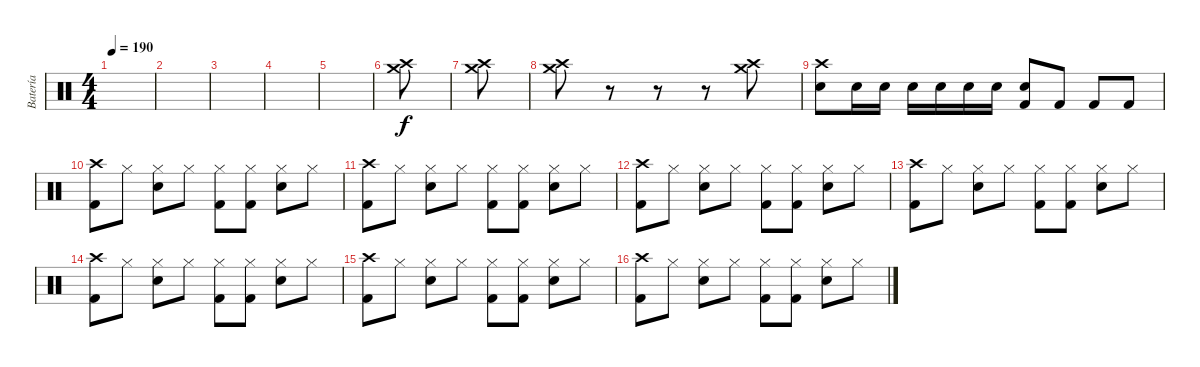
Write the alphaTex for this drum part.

\track ("Batería" "Batería") {instrument percussion}
\staff {score}
\articulation defaults
\ts (4 4)
\tempo 190
\clef neutral
\ks c
|
|
|
|
|
("Crash high (hit)" "Crash medium (hit)").8 |
("Crash high (hit)" "Crash medium (hit)").8 |
("Crash high (hit)" "Crash medium (hit)").8 r.8 r.8 r.8 ("Crash medium (hit)" "Crash high (hit)").8 |
("Crash high (hit)" "Snare (hit) 2").8 "Snare (hit) 2".16 "Snare (hit) 2".16 "Snare (hit) 2".16 "Snare (hit) 2".16 "Snare (hit) 2".16 "Snare (hit) 2".16 ("Snare (hit) 2" "Kick (hit) 2").8 "Kick (hit) 2".8 "Kick (hit) 2".8 "Kick (hit) 2".8 |
("Crash high (hit)" "Kick (hit) 2").8 "Hi-Hat (closed)".8 ("Hi-Hat (closed)" "Snare (hit) 2").8 "Hi-Hat (closed)".8 ("Hi-Hat (closed)" "Kick (hit) 2").8 ("Hi-Hat (closed)" "Kick (hit) 2").8 ("Hi-Hat (closed)" "Snare (hit) 2").8 "Hi-Hat (closed)".8 |
("Crash high (hit)" "Kick (hit) 2").8 "Hi-Hat (closed)".8 ("Hi-Hat (closed)" "Snare (hit) 2").8 "Hi-Hat (closed)".8 ("Hi-Hat (closed)" "Kick (hit) 2").8 ("Hi-Hat (closed)" "Kick (hit) 2").8 ("Hi-Hat (closed)" "Snare (hit) 2").8 "Hi-Hat (closed)".8 |
("Crash high (hit)" "Kick (hit) 2").8 "Hi-Hat (closed)".8 ("Hi-Hat (closed)" "Snare (hit) 2").8 "Hi-Hat (closed)".8 ("Hi-Hat (closed)" "Kick (hit) 2").8 ("Hi-Hat (closed)" "Kick (hit) 2").8 ("Hi-Hat (closed)" "Snare (hit) 2").8 "Hi-Hat (closed)".8 |
("Crash high (hit)" "Kick (hit) 2").8 "Hi-Hat (closed)".8 ("Hi-Hat (closed)" "Snare (hit) 2").8 "Hi-Hat (closed)".8 ("Hi-Hat (closed)" "Kick (hit) 2").8 ("Hi-Hat (closed)" "Kick (hit) 2").8 ("Hi-Hat (closed)" "Snare (hit) 2").8 "Hi-Hat (closed)".8 |
("Crash high (hit)" "Kick (hit) 2").8 "Hi-Hat (closed)".8 ("Hi-Hat (closed)" "Snare (hit) 2").8 "Hi-Hat (closed)".8 ("Hi-Hat (closed)" "Kick (hit) 2").8 ("Hi-Hat (closed)" "Kick (hit) 2").8 ("Hi-Hat (closed)" "Snare (hit) 2").8 "Hi-Hat (closed)".8 |
("Crash high (hit)" "Kick (hit) 2").8 "Hi-Hat (closed)".8 ("Hi-Hat (closed)" "Snare (hit) 2").8 "Hi-Hat (closed)".8 ("Hi-Hat (closed)" "Kick (hit) 2").8 ("Hi-Hat (closed)" "Kick (hit) 2").8 ("Hi-Hat (closed)" "Snare (hit) 2").8 "Hi-Hat (closed)".8 |
("Crash high (hit)" "Kick (hit) 2").8 "Hi-Hat (closed)".8 ("Hi-Hat (closed)" "Snare (hit) 2").8 "Hi-Hat (closed)".8 ("Hi-Hat (closed)" "Kick (hit) 2").8 ("Hi-Hat (closed)" "Kick (hit) 2").8 ("Hi-Hat (closed)" "Snare (hit) 2").8 "Hi-Hat (closed)".8
